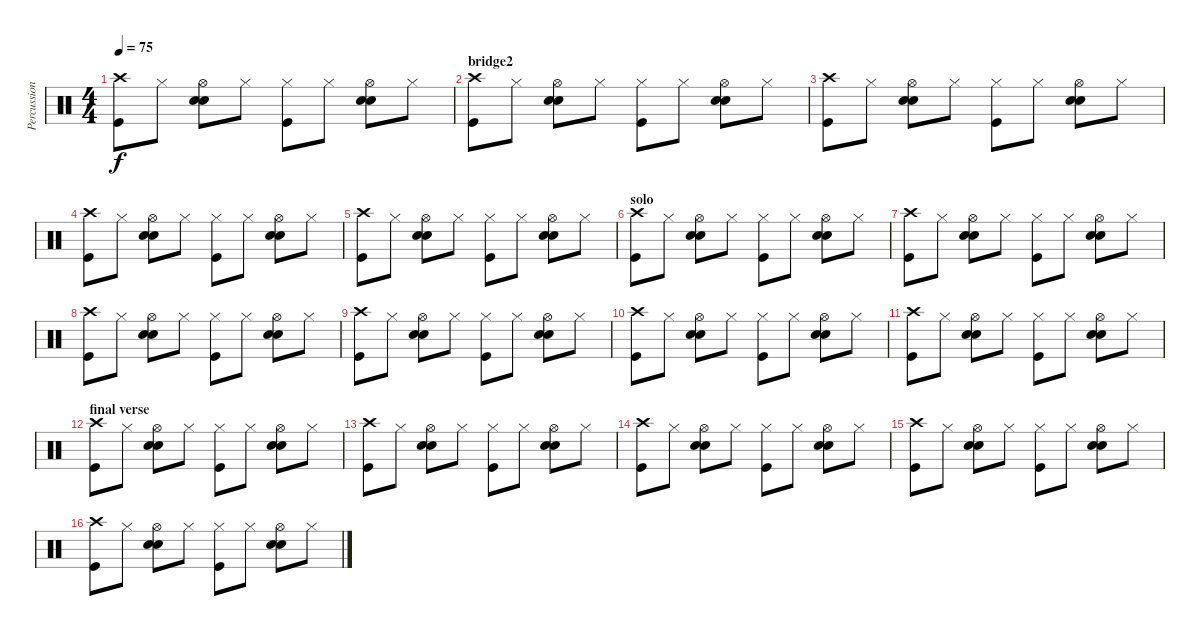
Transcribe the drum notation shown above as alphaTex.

\track ("Percussions" "Percussion") {instrument percussion}
\staff {score}
\articulation defaults
\ts (4 4)
\tempo 75
\clef neutral
\ks c
("Crash high (hit)" "Kick (hit)").8{dy f} "Hi-Hat (closed)".8 ("Hi-Hat (open)" "Snare (hit) 2" "Electric Snare (hit)").8 "Hi-Hat (closed)".8 ("Hi-Hat (closed)" "Kick (hit)").8 "Hi-Hat (closed)".8 ("Hi-Hat (open)" "Snare (hit) 2" "Electric Snare (hit)").8 "Hi-Hat (closed)".8 |
\section ("" "bridge2")
("Crash high (hit)" "Kick (hit)").8 "Hi-Hat (closed)".8 ("Hi-Hat (open)" "Snare (hit) 2" "Electric Snare (hit)").8 "Hi-Hat (closed)".8 ("Hi-Hat (closed)" "Kick (hit)").8 "Hi-Hat (closed)".8 ("Hi-Hat (open)" "Snare (hit) 2" "Electric Snare (hit)").8 "Hi-Hat (closed)".8 |
("Crash high (hit)" "Kick (hit)").8 "Hi-Hat (closed)".8 ("Hi-Hat (open)" "Snare (hit) 2" "Electric Snare (hit)").8 "Hi-Hat (closed)".8 ("Hi-Hat (closed)" "Kick (hit)").8 "Hi-Hat (closed)".8 ("Hi-Hat (open)" "Snare (hit) 2" "Electric Snare (hit)").8 "Hi-Hat (closed)".8 |
("Crash high (hit)" "Kick (hit)").8 "Hi-Hat (closed)".8 ("Hi-Hat (open)" "Snare (hit) 2" "Electric Snare (hit)").8 "Hi-Hat (closed)".8 ("Hi-Hat (closed)" "Kick (hit)").8 "Hi-Hat (closed)".8 ("Hi-Hat (open)" "Snare (hit) 2" "Electric Snare (hit)").8 "Hi-Hat (closed)".8 |
("Crash high (hit)" "Kick (hit)").8 "Hi-Hat (closed)".8 ("Hi-Hat (open)" "Snare (hit) 2" "Electric Snare (hit)").8 "Hi-Hat (closed)".8 ("Hi-Hat (closed)" "Kick (hit)").8 "Hi-Hat (closed)".8 ("Hi-Hat (open)" "Snare (hit) 2" "Electric Snare (hit)").8 "Hi-Hat (closed)".8 |
\section ("" "solo")
("Crash high (hit)" "Kick (hit)").8 "Hi-Hat (closed)".8 ("Hi-Hat (open)" "Snare (hit) 2" "Electric Snare (hit)").8 "Hi-Hat (closed)".8 ("Hi-Hat (closed)" "Kick (hit)").8 "Hi-Hat (closed)".8 ("Hi-Hat (open)" "Snare (hit) 2" "Electric Snare (hit)").8 "Hi-Hat (closed)".8 |
("Crash high (hit)" "Kick (hit)").8 "Hi-Hat (closed)".8 ("Hi-Hat (open)" "Snare (hit) 2" "Electric Snare (hit)").8 "Hi-Hat (closed)".8 ("Hi-Hat (closed)" "Kick (hit)").8 "Hi-Hat (closed)".8 ("Hi-Hat (open)" "Snare (hit) 2" "Electric Snare (hit)").8 "Hi-Hat (closed)".8 |
("Crash high (hit)" "Kick (hit)").8 "Hi-Hat (closed)".8 ("Hi-Hat (open)" "Snare (hit) 2" "Electric Snare (hit)").8 "Hi-Hat (closed)".8 ("Hi-Hat (closed)" "Kick (hit)").8 "Hi-Hat (closed)".8 ("Hi-Hat (open)" "Snare (hit) 2" "Electric Snare (hit)").8 "Hi-Hat (closed)".8 |
("Crash high (hit)" "Kick (hit)").8 "Hi-Hat (closed)".8 ("Hi-Hat (open)" "Snare (hit) 2" "Electric Snare (hit)").8 "Hi-Hat (closed)".8 ("Hi-Hat (closed)" "Kick (hit)").8 "Hi-Hat (closed)".8 ("Hi-Hat (open)" "Snare (hit) 2" "Electric Snare (hit)").8 "Hi-Hat (closed)".8 |
("Crash high (hit)" "Kick (hit)").8 "Hi-Hat (closed)".8 ("Hi-Hat (open)" "Snare (hit) 2" "Electric Snare (hit)").8 "Hi-Hat (closed)".8 ("Hi-Hat (closed)" "Kick (hit)").8 "Hi-Hat (closed)".8 ("Hi-Hat (open)" "Snare (hit) 2" "Electric Snare (hit)").8 "Hi-Hat (closed)".8 |
("Crash high (hit)" "Kick (hit)").8 "Hi-Hat (closed)".8 ("Hi-Hat (open)" "Snare (hit) 2" "Electric Snare (hit)").8 "Hi-Hat (closed)".8 ("Hi-Hat (closed)" "Kick (hit)").8 "Hi-Hat (closed)".8 ("Hi-Hat (open)" "Snare (hit) 2" "Electric Snare (hit)").8 "Hi-Hat (closed)".8 |
\section ("" "final verse")
("Crash high (hit)" "Kick (hit)").8 "Hi-Hat (closed)".8 ("Hi-Hat (open)" "Snare (hit) 2" "Electric Snare (hit)").8 "Hi-Hat (closed)".8 ("Hi-Hat (closed)" "Kick (hit)").8 "Hi-Hat (closed)".8 ("Hi-Hat (open)" "Snare (hit) 2" "Electric Snare (hit)").8 "Hi-Hat (closed)".8 |
("Crash high (hit)" "Kick (hit)").8 "Hi-Hat (closed)".8 ("Hi-Hat (open)" "Snare (hit) 2" "Electric Snare (hit)").8 "Hi-Hat (closed)".8 ("Hi-Hat (closed)" "Kick (hit)").8 "Hi-Hat (closed)".8 ("Hi-Hat (open)" "Snare (hit) 2" "Electric Snare (hit)").8 "Hi-Hat (closed)".8 |
("Crash high (hit)" "Kick (hit)").8 "Hi-Hat (closed)".8 ("Hi-Hat (open)" "Snare (hit) 2" "Electric Snare (hit)").8 "Hi-Hat (closed)".8 ("Hi-Hat (closed)" "Kick (hit)").8 "Hi-Hat (closed)".8 ("Hi-Hat (open)" "Snare (hit) 2" "Electric Snare (hit)").8 "Hi-Hat (closed)".8 |
("Crash high (hit)" "Kick (hit)").8 "Hi-Hat (closed)".8 ("Hi-Hat (open)" "Snare (hit) 2" "Electric Snare (hit)").8 "Hi-Hat (closed)".8 ("Hi-Hat (closed)" "Kick (hit)").8 "Hi-Hat (closed)".8 ("Hi-Hat (open)" "Snare (hit) 2" "Electric Snare (hit)").8 "Hi-Hat (closed)".8 |
("Crash high (hit)" "Kick (hit)").8 "Hi-Hat (closed)".8 ("Hi-Hat (open)" "Snare (hit) 2" "Electric Snare (hit)").8 "Hi-Hat (closed)".8 ("Hi-Hat (closed)" "Kick (hit)").8 "Hi-Hat (closed)".8 ("Hi-Hat (open)" "Snare (hit) 2" "Electric Snare (hit)").8 "Hi-Hat (closed)".8
